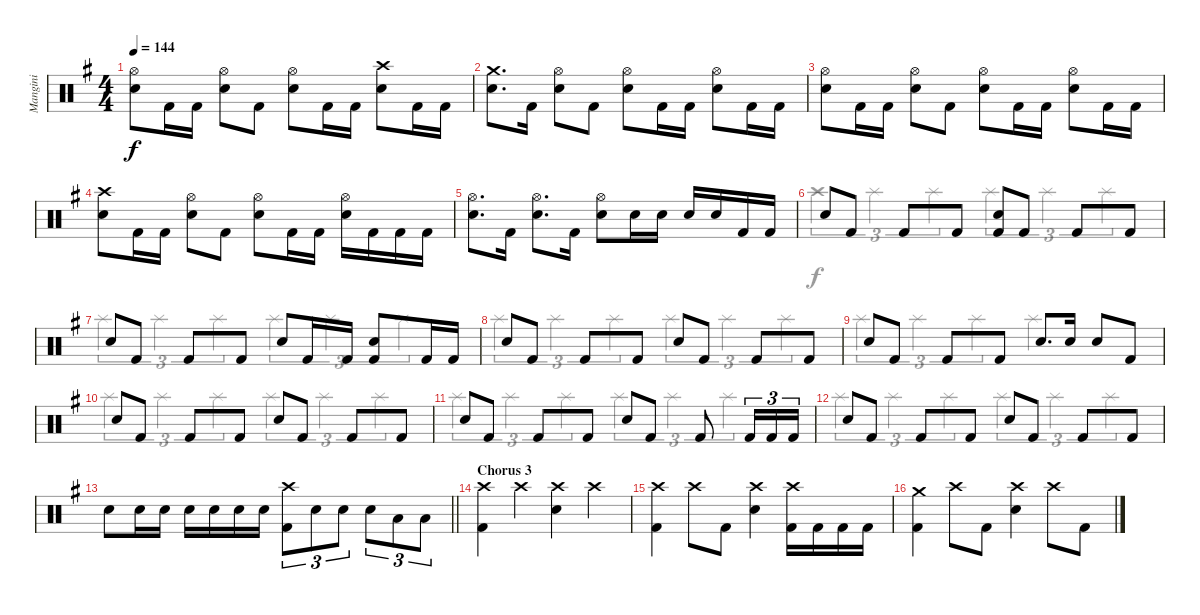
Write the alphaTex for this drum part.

\track ("Mangini" "Mangini") {instrument percussion}
\staff {score}
\articulation defaults
\voice
\ts (4 4)
\tempo 144
\clef neutral
\ks eminor
("Hi-Hat (open)" "Snare (hit) 2").8{dy f} "Kick (hit) 2".16 "Kick (hit) 2".16 ("Hi-Hat (open)" "Snare (hit) 2").8 "Kick (hit) 2".8 ("Hi-Hat (open)" "Snare (hit) 2").8 "Kick (hit) 2".16 "Kick (hit) 2".16 ("Crash high (hit)" "Snare (hit) 2").8 "Kick (hit) 2".16 "Kick (hit) 2".16 |
("Crash medium (hit)" "Snare (hit) 2").8{d} "Kick (hit) 2".16 ("Hi-Hat (open)" "Snare (hit) 2").8 "Kick (hit) 2".8 ("Hi-Hat (open)" "Snare (hit) 2").8 "Kick (hit) 2".16 "Kick (hit) 2".16 ("Hi-Hat (open)" "Snare (hit) 2").8 "Kick (hit) 2".16 "Kick (hit) 2".16 |
("Hi-Hat (open)" "Snare (hit) 2").8 "Kick (hit) 2".16 "Kick (hit) 2".16 ("Hi-Hat (open)" "Snare (hit) 2").8 "Kick (hit) 2".8 ("Hi-Hat (open)" "Snare (hit) 2").8 "Kick (hit) 2".16 "Kick (hit) 2".16 ("Hi-Hat (open)" "Snare (hit) 2").8 "Kick (hit) 2".16 "Kick (hit) 2".16 |
("Crash high (hit)" "Snare (hit) 2").8 "Kick (hit) 2".16 "Kick (hit) 2".16 ("Hi-Hat (open)" "Snare (hit) 2").8 "Kick (hit) 2".8 ("Hi-Hat (open)" "Snare (hit) 2").8 "Kick (hit) 2".16 "Kick (hit) 2".16 ("Hi-Hat (open)" "Snare (hit) 2").16 "Kick (hit) 2".16 "Kick (hit) 2".16 "Kick (hit) 2".16 |
("Hi-Hat (open)" "Snare (hit) 2").8{d} "Kick (hit) 2".16 ("Hi-Hat (open)" "Snare (hit) 2").8{d} "Kick (hit) 2".16 ("Hi-Hat (open)" "Snare (hit) 2").8 "Snare (hit) 2".16 "Snare (hit) 2".16 "Snare (hit) 2".16 "Snare (hit) 2".16 "Kick (hit) 2".16 "Kick (hit) 2".16 |
"Snare (hit) 2".8 "Kick (hit) 2".8 "Kick (hit) 2".8 "Kick (hit) 2".8 ("Snare (hit) 2" "Kick (hit) 2").8 "Kick (hit) 2".8 "Kick (hit) 2".8 "Kick (hit) 2".8 |
"Snare (hit) 2".8 "Kick (hit) 2".8 "Kick (hit) 2".8 "Kick (hit) 2".8 "Snare (hit) 2".8 "Kick (hit) 2".16 "Kick (hit) 2".16 ("Snare (hit) 2" "Kick (hit) 2").8 "Kick (hit) 2".16 "Kick (hit) 2".16 |
"Snare (hit) 2".8 "Kick (hit) 2".8 "Kick (hit) 2".8 "Kick (hit) 2".8 "Snare (hit) 2".8 "Kick (hit) 2".8 "Kick (hit) 2".8 "Kick (hit) 2".8 |
"Snare (hit) 2".8 "Kick (hit) 2".8 "Kick (hit) 2".8 "Kick (hit) 2".8 "Snare (hit) 2".8{d} "Snare (hit) 2".16 "Snare (hit) 2".8 "Kick (hit) 2".8 |
"Snare (hit) 2".8 "Kick (hit) 2".8 "Kick (hit) 2".8 "Kick (hit) 2".8 "Snare (hit) 2".8 "Kick (hit) 2".8 "Kick (hit) 2".8 "Kick (hit) 2".8 |
"Snare (hit) 2".8 "Kick (hit) 2".8 "Kick (hit) 2".8 "Kick (hit) 2".8 "Snare (hit) 2".8 "Kick (hit) 2".8 "Kick (hit) 2".8 "Kick (hit) 2".16{tu (3 2)} "Kick (hit) 2".16{tu (3 2)} "Kick (hit) 2".16{tu (3 2)} |
"Snare (hit) 2".8 "Kick (hit) 2".8 "Kick (hit) 2".8 "Kick (hit) 2".8 "Snare (hit) 2".8 "Kick (hit) 2".8 "Kick (hit) 2".8 "Kick (hit) 2".8 |
\barLineRight lightlight "Snare (hit) 2".8 "Snare (hit) 2".16 "Snare (hit) 2".16 "Snare (hit) 2".16 "Snare (hit) 2".16 "Snare (hit) 2".16 "Snare (hit) 2".16
("Crash high (hit)" "Kick (hit) 2").8{tu (3 2)} "Snare (hit) 2".8{tu (3 2)} "Snare (hit) 2".8{tu (3 2)} "Snare (hit) 2".8{tu (3 2)} "Low Tom (hit)".8{tu (3 2)} "Low Tom (hit)".8{tu (3 2)} |
\section ("" "Chorus 3")
("Crash high (hit)" "Kick (hit) 2").4 "Crash high (hit)".4 ("Crash high (hit)" "Snare (hit) 2").4 "Crash high (hit)".4 |
("Crash high (hit)" "Kick (hit) 2").4 "Crash high (hit)".8 "Kick (hit) 2".8 ("Crash high (hit)" "Snare (hit) 2").4 ("Crash high (hit)" "Kick (hit) 2").16 "Kick (hit) 2".16 "Kick (hit) 2".16 "Kick (hit) 2".16 |
("Crash medium (hit)" "Kick (hit) 2").4 "Crash high (hit)".8 "Kick (hit) 2".8 ("Crash high (hit)" "Snare (hit) 2").4 "Crash high (hit)".8 "Kick (hit) 2".8
\voice
\clef neutral
\ottava regular
\simile none
\ks eminor
|
|
|
|
|
"Crash high (hit)".4{tu (3 2)} "Splash (hit)".4{tu (3 2)} "Splash (hit)".4{tu (3 2)} "Splash (hit)".4{tu (3 2)} "Splash (hit)".4{tu (3 2)} "Splash (hit)".4{tu (3 2)} |
"Splash (hit)".4{tu (3 2)} "Splash (hit)".4{tu (3 2)} "Splash (hit)".4{tu (3 2)} "Splash (hit)".4{tu (3 2)} "Splash (hit)".4{tu (3 2)} "Splash (hit)".4{tu (3 2)} |
"Splash (hit)".4{tu (3 2)} "Splash (hit)".4{tu (3 2)} "Splash (hit)".4{tu (3 2)} "Splash (hit)".4{tu (3 2)} "Splash (hit)".4{tu (3 2)} "Splash (hit)".4{tu (3 2)} |
"Splash (hit)".4{tu (3 2)} "Splash (hit)".4{tu (3 2)} "Splash (hit)".4{tu (3 2)} "Splash (hit)".2 |
"Splash (hit)".4{tu (3 2)} "Splash (hit)".4{tu (3 2)} "Splash (hit)".4{tu (3 2)} "Splash (hit)".4{tu (3 2)} "Splash (hit)".4{tu (3 2)} "Splash (hit)".4{tu (3 2)} |
"Splash (hit)".4{tu (3 2)} "Splash (hit)".4{tu (3 2)} "Splash (hit)".4{tu (3 2)} "Splash (hit)".4{tu (3 2)} "Splash (hit)".4{tu (3 2)} "Splash (hit)".4{tu (3 2)} |
"Splash (hit)".4{tu (3 2)} "Splash (hit)".4{tu (3 2)} "Splash (hit)".4{tu (3 2)} "Splash (hit)".4{tu (3 2)} "Splash (hit)".4{tu (3 2)} "Splash (hit)".4{tu (3 2)} |
\barLineRight lightlight
|
|
|
